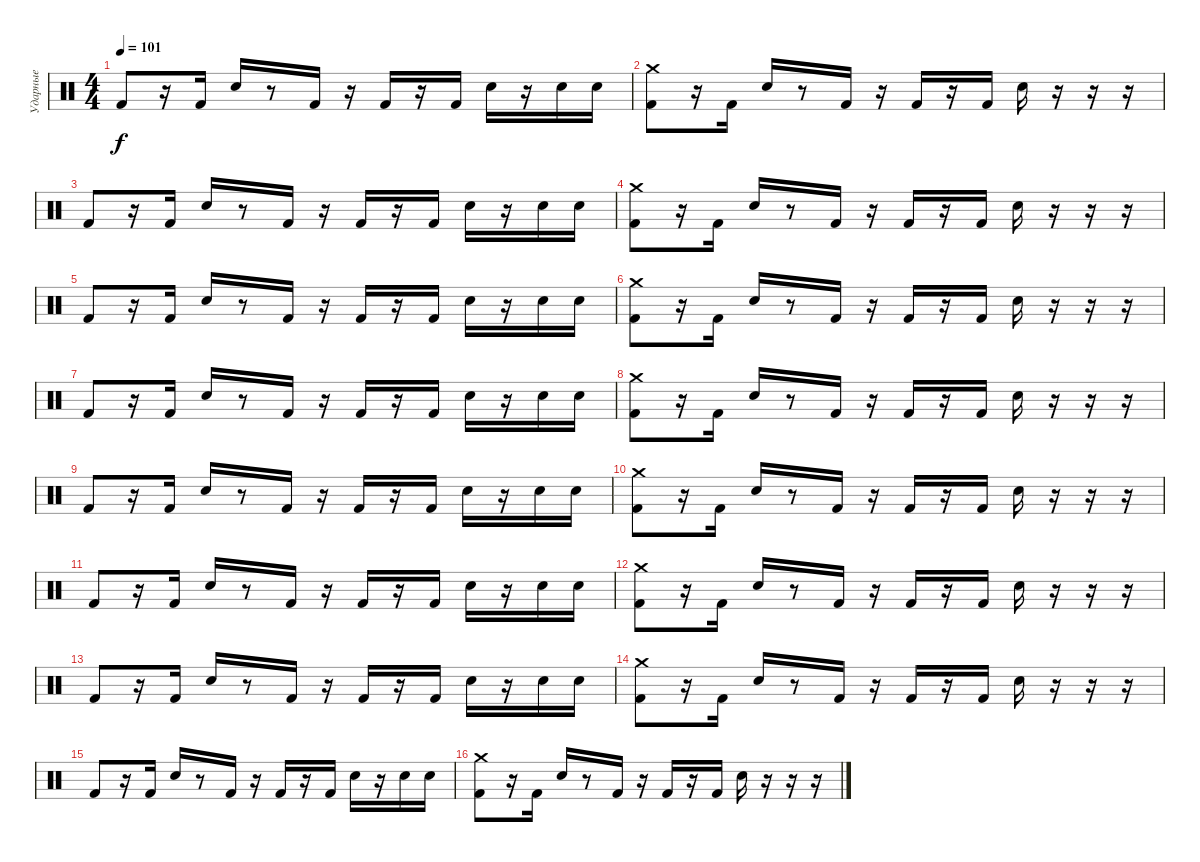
\track ("Ударные" "Ударные") {instrument percussion}
\staff {score}
\articulation defaults
\ts (4 4)
\tempo 101
\clef neutral
\ks c "Kick (hit) 2".8{dy f}
r.16 "Kick (hit) 2".16 "Snare (hit) 2".16 r.8 "Kick (hit) 2".16 r.16 "Kick (hit) 2".16 r.16 "Kick (hit) 2".16 "Snare (hit) 2".16 r.16 "Snare (hit) 2".16 "Snare (hit) 2".16 |
("Crash medium (hit)" "Kick (hit) 2").8 r.16 "Kick (hit) 2".16 "Snare (hit) 2".16 r.8 "Kick (hit) 2".16 r.16 "Kick (hit) 2".16 r.16 "Kick (hit) 2".16 "Snare (hit) 2".16 r.16 r.16 r.16 |
"Kick (hit) 2".8 r.16 "Kick (hit) 2".16 "Snare (hit) 2".16 r.8 "Kick (hit) 2".16 r.16 "Kick (hit) 2".16 r.16 "Kick (hit) 2".16 "Snare (hit) 2".16 r.16 "Snare (hit) 2".16 "Snare (hit) 2".16 |
("Crash medium (hit)" "Kick (hit) 2").8 r.16 "Kick (hit) 2".16 "Snare (hit) 2".16 r.8 "Kick (hit) 2".16 r.16 "Kick (hit) 2".16 r.16 "Kick (hit) 2".16 "Snare (hit) 2".16 r.16 r.16 r.16 |
"Kick (hit) 2".8 r.16 "Kick (hit) 2".16 "Snare (hit) 2".16 r.8 "Kick (hit) 2".16 r.16 "Kick (hit) 2".16 r.16 "Kick (hit) 2".16 "Snare (hit) 2".16 r.16 "Snare (hit) 2".16 "Snare (hit) 2".16 |
("Crash medium (hit)" "Kick (hit) 2").8 r.16 "Kick (hit) 2".16 "Snare (hit) 2".16 r.8 "Kick (hit) 2".16 r.16 "Kick (hit) 2".16 r.16 "Kick (hit) 2".16 "Snare (hit) 2".16 r.16 r.16 r.16 |
"Kick (hit) 2".8 r.16 "Kick (hit) 2".16 "Snare (hit) 2".16 r.8 "Kick (hit) 2".16 r.16 "Kick (hit) 2".16 r.16 "Kick (hit) 2".16 "Snare (hit) 2".16 r.16 "Snare (hit) 2".16 "Snare (hit) 2".16 |
("Crash medium (hit)" "Kick (hit) 2").8 r.16 "Kick (hit) 2".16 "Snare (hit) 2".16 r.8 "Kick (hit) 2".16 r.16 "Kick (hit) 2".16 r.16 "Kick (hit) 2".16 "Snare (hit) 2".16 r.16 r.16 r.16 |
"Kick (hit) 2".8 r.16 "Kick (hit) 2".16 "Snare (hit) 2".16 r.8 "Kick (hit) 2".16 r.16 "Kick (hit) 2".16 r.16 "Kick (hit) 2".16 "Snare (hit) 2".16 r.16 "Snare (hit) 2".16 "Snare (hit) 2".16 |
("Crash medium (hit)" "Kick (hit) 2").8 r.16 "Kick (hit) 2".16 "Snare (hit) 2".16 r.8 "Kick (hit) 2".16 r.16 "Kick (hit) 2".16 r.16 "Kick (hit) 2".16 "Snare (hit) 2".16 r.16 r.16 r.16 |
"Kick (hit) 2".8 r.16 "Kick (hit) 2".16 "Snare (hit) 2".16 r.8 "Kick (hit) 2".16 r.16 "Kick (hit) 2".16 r.16 "Kick (hit) 2".16 "Snare (hit) 2".16 r.16 "Snare (hit) 2".16 "Snare (hit) 2".16 |
("Crash medium (hit)" "Kick (hit) 2").8 r.16 "Kick (hit) 2".16 "Snare (hit) 2".16 r.8 "Kick (hit) 2".16 r.16 "Kick (hit) 2".16 r.16 "Kick (hit) 2".16 "Snare (hit) 2".16 r.16 r.16 r.16 |
"Kick (hit) 2".8 r.16 "Kick (hit) 2".16 "Snare (hit) 2".16 r.8 "Kick (hit) 2".16 r.16 "Kick (hit) 2".16 r.16 "Kick (hit) 2".16 "Snare (hit) 2".16 r.16 "Snare (hit) 2".16 "Snare (hit) 2".16 |
("Crash medium (hit)" "Kick (hit) 2").8 r.16 "Kick (hit) 2".16 "Snare (hit) 2".16 r.8 "Kick (hit) 2".16 r.16 "Kick (hit) 2".16 r.16 "Kick (hit) 2".16 "Snare (hit) 2".16 r.16 r.16 r.16 |
"Kick (hit) 2".8 r.16 "Kick (hit) 2".16 "Snare (hit) 2".16 r.8 "Kick (hit) 2".16 r.16 "Kick (hit) 2".16 r.16 "Kick (hit) 2".16 "Snare (hit) 2".16 r.16 "Snare (hit) 2".16 "Snare (hit) 2".16 |
("Crash medium (hit)" "Kick (hit) 2").8 r.16 "Kick (hit) 2".16 "Snare (hit) 2".16 r.8 "Kick (hit) 2".16 r.16 "Kick (hit) 2".16 r.16 "Kick (hit) 2".16 "Snare (hit) 2".16 r.16 r.16 r.16
